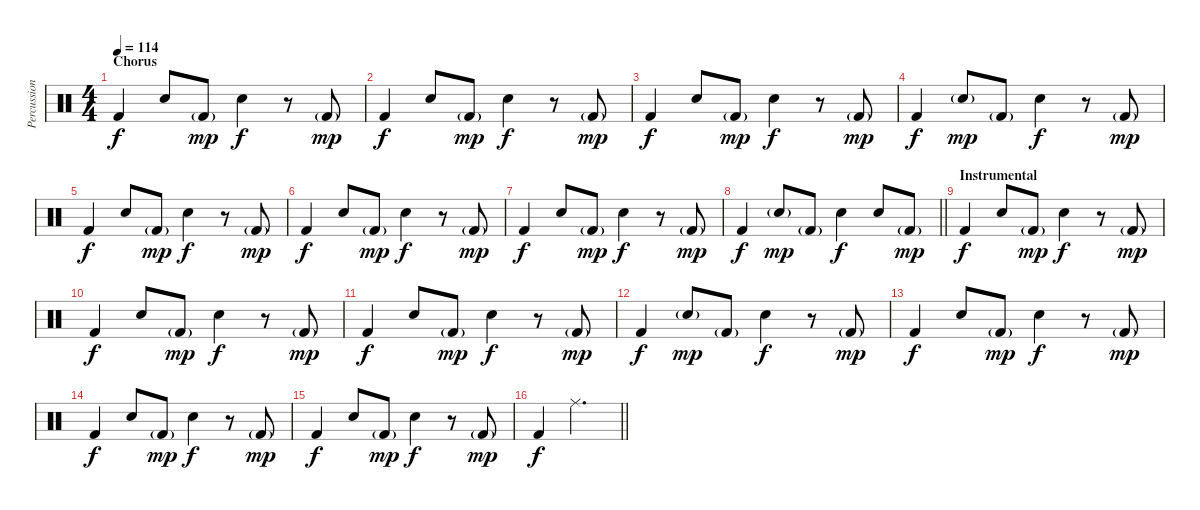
\track ("Percussion" "Percussion") {instrument percussion}
\staff {score}
\articulation defaults
\ts (4 4)
\section ("" "Chorus")
\tempo 114
\clef neutral
\ks c "Kick (hit) 2".4{dy f} "Snare (hit) 2".8 "Kick (hit) 2"{g}.8{dy mp} "Snare (hit) 2".4{dy f}
r.8 "Kick (hit) 2"{g}.8{dy mp} |
"Kick (hit) 2".4{dy f} "Snare (hit) 2".8 "Kick (hit) 2"{g}.8{dy mp} "Snare (hit) 2".4{dy f} r.8 "Kick (hit) 2"{g}.8{dy mp} |
"Kick (hit) 2".4{dy f} "Snare (hit) 2".8 "Kick (hit) 2"{g}.8{dy mp} "Snare (hit) 2".4{dy f} r.8 "Kick (hit) 2"{g}.8{dy mp} |
"Kick (hit) 2".4{dy f} "Snare (hit) 2"{g}.8{dy mp} "Kick (hit) 2"{g}.8 "Snare (hit) 2".4{dy f} r.8 "Kick (hit) 2"{g}.8{dy mp} |
"Kick (hit) 2".4{dy f} "Snare (hit) 2".8 "Kick (hit) 2"{g}.8{dy mp} "Snare (hit) 2".4{dy f} r.8 "Kick (hit) 2"{g}.8{dy mp} |
"Kick (hit) 2".4{dy f} "Snare (hit) 2".8 "Kick (hit) 2"{g}.8{dy mp} "Snare (hit) 2".4{dy f} r.8 "Kick (hit) 2"{g}.8{dy mp} |
"Kick (hit) 2".4{dy f} "Snare (hit) 2".8 "Kick (hit) 2"{g}.8{dy mp} "Snare (hit) 2".4{dy f} r.8 "Kick (hit) 2"{g}.8{dy mp} |
\barLineRight lightlight "Kick (hit) 2".4{dy f} "Snare (hit) 2"{g}.8{dy mp} "Kick (hit) 2"{g}.8 "Snare (hit) 2".4{dy f} "Snare (hit) 2".8 "Kick (hit) 2"{g}.8{dy mp}
|
\section ("" "Instrumental")
"Kick (hit) 2".4{dy f} "Snare (hit) 2".8 "Kick (hit) 2"{g}.8{dy mp} "Snare (hit) 2".4{dy f} r.8 "Kick (hit) 2"{g}.8{dy mp} |
"Kick (hit) 2".4{dy f} "Snare (hit) 2".8 "Kick (hit) 2"{g}.8{dy mp} "Snare (hit) 2".4{dy f} r.8 "Kick (hit) 2"{g}.8{dy mp} |
"Kick (hit) 2".4{dy f} "Snare (hit) 2".8 "Kick (hit) 2"{g}.8{dy mp} "Snare (hit) 2".4{dy f} r.8 "Kick (hit) 2"{g}.8{dy mp} |
"Kick (hit) 2".4{dy f} "Snare (hit) 2"{g}.8{dy mp} "Kick (hit) 2"{g}.8 "Snare (hit) 2".4{dy f} r.8 "Kick (hit) 2"{g}.8{dy mp} |
"Kick (hit) 2".4{dy f} "Snare (hit) 2".8 "Kick (hit) 2"{g}.8{dy mp} "Snare (hit) 2".4{dy f} r.8 "Kick (hit) 2"{g}.8{dy mp} |
"Kick (hit) 2".4{dy f} "Snare (hit) 2".8 "Kick (hit) 2"{g}.8{dy mp} "Snare (hit) 2".4{dy f} r.8 "Kick (hit) 2"{g}.8{dy mp} |
"Kick (hit) 2".4{dy f} "Snare (hit) 2".8 "Kick (hit) 2"{g}.8{dy mp} "Snare (hit) 2".4{dy f} r.8 "Kick (hit) 2"{g}.8{dy mp} |
\barLineRight lightlight "Kick (hit) 2".4{dy f} "Ride (middle)".2{d}
